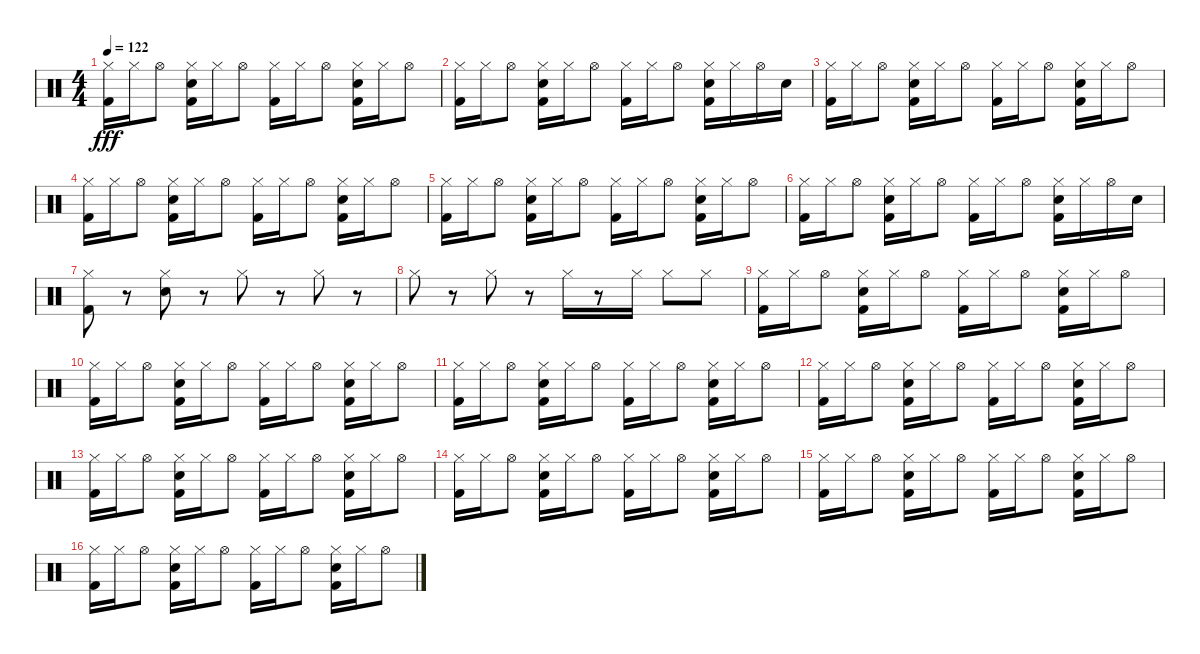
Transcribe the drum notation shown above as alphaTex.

\track "" {mute instrument percussion}
\staff {score}
\articulation defaults
\ts (4 4)
\tempo 122
\clef neutral
\ks c
("Kick (hit) 2" "Hi-Hat (closed)").16{dy fff} "Hi-Hat (closed)".16 "Hi-Hat (open)".8 ("Kick (hit) 2" "Snare (hit) 2" "Hi-Hat (closed)").16 "Hi-Hat (closed)".16 "Hi-Hat (open)".8 ("Kick (hit) 2" "Hi-Hat (closed)").16 "Hi-Hat (closed)".16 "Hi-Hat (open)".8 ("Kick (hit) 2" "Snare (hit) 2" "Hi-Hat (closed)").16 "Hi-Hat (closed)".16 "Hi-Hat (open)".8 |
("Kick (hit) 2" "Hi-Hat (closed)").16 "Hi-Hat (closed)".16 "Hi-Hat (open)".8 ("Kick (hit) 2" "Snare (hit) 2" "Hi-Hat (closed)").16 "Hi-Hat (closed)".16 "Hi-Hat (open)".8 ("Kick (hit) 2" "Hi-Hat (closed)").16 "Hi-Hat (closed)".16 "Hi-Hat (open)".8 ("Kick (hit) 2" "Snare (hit) 2" "Hi-Hat (closed)").16 "Hi-Hat (closed)".16 "Hi-Hat (open)".16 "Snare (hit) 2".16 |
("Kick (hit) 2" "Hi-Hat (closed)").16 "Hi-Hat (closed)".16 "Hi-Hat (open)".8 ("Kick (hit) 2" "Snare (hit) 2" "Hi-Hat (closed)").16 "Hi-Hat (closed)".16 "Hi-Hat (open)".8 ("Kick (hit) 2" "Hi-Hat (closed)").16 "Hi-Hat (closed)".16 "Hi-Hat (open)".8 ("Kick (hit) 2" "Snare (hit) 2" "Hi-Hat (closed)").16 "Hi-Hat (closed)".16 "Hi-Hat (open)".8 |
("Kick (hit) 2" "Hi-Hat (closed)").16 "Hi-Hat (closed)".16 "Hi-Hat (open)".8 ("Kick (hit) 2" "Snare (hit) 2" "Hi-Hat (closed)").16 "Hi-Hat (closed)".16 "Hi-Hat (open)".8 ("Kick (hit) 2" "Hi-Hat (closed)").16 "Hi-Hat (closed)".16 "Hi-Hat (open)".8 ("Kick (hit) 2" "Snare (hit) 2" "Hi-Hat (closed)").16 "Hi-Hat (closed)".16 "Hi-Hat (open)".8 |
("Kick (hit) 2" "Hi-Hat (closed)").16 "Hi-Hat (closed)".16 "Hi-Hat (open)".8 ("Kick (hit) 2" "Snare (hit) 2" "Hi-Hat (closed)").16 "Hi-Hat (closed)".16 "Hi-Hat (open)".8 ("Kick (hit) 2" "Hi-Hat (closed)").16 "Hi-Hat (closed)".16 "Hi-Hat (open)".8 ("Kick (hit) 2" "Snare (hit) 2" "Hi-Hat (closed)").16 "Hi-Hat (closed)".16 "Hi-Hat (open)".8 |
("Kick (hit) 2" "Hi-Hat (closed)").16 "Hi-Hat (closed)".16 "Hi-Hat (open)".8 ("Kick (hit) 2" "Snare (hit) 2" "Hi-Hat (closed)").16 "Hi-Hat (closed)".16 "Hi-Hat (open)".8 ("Kick (hit) 2" "Hi-Hat (closed)").16 "Hi-Hat (closed)".16 "Hi-Hat (open)".8 ("Kick (hit) 2" "Snare (hit) 2" "Hi-Hat (closed)").16 "Hi-Hat (closed)".16 "Hi-Hat (open)".16 "Snare (hit) 2".16 |
("Kick (hit) 2" "Hi-Hat (closed)").8 r.8 ("Hand Clap (hit)" "Hi-Hat (closed)").8 r.8 "Hi-Hat (closed)".8 r.8 "Hi-Hat (closed)".8 r.8 |
"Hi-Hat (closed)".8 r.8 "Hi-Hat (closed)".8 r.8 "Hi-Hat (closed)".16 r.8 "Hi-Hat (closed)".16 "Hi-Hat (closed)".8 "Hi-Hat (closed)".8 |
("Kick (hit) 2" "Hi-Hat (closed)").16 "Hi-Hat (closed)".16 "Hi-Hat (open)".8 ("Kick (hit) 2" "Snare (hit) 2" "Hi-Hat (closed)").16 "Hi-Hat (closed)".16 "Hi-Hat (open)".8 ("Kick (hit) 2" "Hi-Hat (closed)").16 "Hi-Hat (closed)".16 "Hi-Hat (open)".8 ("Kick (hit) 2" "Snare (hit) 2" "Hi-Hat (closed)").16 "Hi-Hat (closed)".16 "Hi-Hat (open)".8 |
("Kick (hit) 2" "Hi-Hat (closed)").16 "Hi-Hat (closed)".16 "Hi-Hat (open)".8 ("Kick (hit) 2" "Snare (hit) 2" "Hi-Hat (closed)").16 "Hi-Hat (closed)".16 "Hi-Hat (open)".8 ("Kick (hit) 2" "Hi-Hat (closed)").16 "Hi-Hat (closed)".16 "Hi-Hat (open)".8 ("Kick (hit) 2" "Snare (hit) 2" "Hi-Hat (closed)").16 "Hi-Hat (closed)".16 "Hi-Hat (open)".8 |
("Kick (hit) 2" "Hi-Hat (closed)").16 "Hi-Hat (closed)".16 "Hi-Hat (open)".8 ("Kick (hit) 2" "Snare (hit) 2" "Hi-Hat (closed)").16 "Hi-Hat (closed)".16 "Hi-Hat (open)".8 ("Kick (hit) 2" "Hi-Hat (closed)").16 "Hi-Hat (closed)".16 "Hi-Hat (open)".8 ("Kick (hit) 2" "Snare (hit) 2" "Hi-Hat (closed)").16 "Hi-Hat (closed)".16 "Hi-Hat (open)".8 |
("Kick (hit) 2" "Hi-Hat (closed)").16 "Hi-Hat (closed)".16 "Hi-Hat (open)".8 ("Kick (hit) 2" "Snare (hit) 2" "Hi-Hat (closed)").16 "Hi-Hat (closed)".16 "Hi-Hat (open)".8 ("Kick (hit) 2" "Hi-Hat (closed)").16 "Hi-Hat (closed)".16 "Hi-Hat (open)".8 ("Kick (hit) 2" "Snare (hit) 2" "Hi-Hat (closed)").16 "Hi-Hat (closed)".16 "Hi-Hat (open)".8 |
("Kick (hit) 2" "Hi-Hat (closed)").16 "Hi-Hat (closed)".16 "Hi-Hat (open)".8 ("Kick (hit) 2" "Snare (hit) 2" "Hi-Hat (closed)").16 "Hi-Hat (closed)".16 "Hi-Hat (open)".8 ("Kick (hit) 2" "Hi-Hat (closed)").16 "Hi-Hat (closed)".16 "Hi-Hat (open)".8 ("Kick (hit) 2" "Snare (hit) 2" "Hi-Hat (closed)").16 "Hi-Hat (closed)".16 "Hi-Hat (open)".8 |
("Kick (hit) 2" "Hi-Hat (closed)").16 "Hi-Hat (closed)".16 "Hi-Hat (open)".8 ("Kick (hit) 2" "Snare (hit) 2" "Hi-Hat (closed)").16 "Hi-Hat (closed)".16 "Hi-Hat (open)".8 ("Kick (hit) 2" "Hi-Hat (closed)").16 "Hi-Hat (closed)".16 "Hi-Hat (open)".8 ("Kick (hit) 2" "Snare (hit) 2" "Hi-Hat (closed)").16 "Hi-Hat (closed)".16 "Hi-Hat (open)".8 |
("Kick (hit) 2" "Hi-Hat (closed)").16 "Hi-Hat (closed)".16 "Hi-Hat (open)".8 ("Kick (hit) 2" "Snare (hit) 2" "Hi-Hat (closed)").16 "Hi-Hat (closed)".16 "Hi-Hat (open)".8 ("Kick (hit) 2" "Hi-Hat (closed)").16 "Hi-Hat (closed)".16 "Hi-Hat (open)".8 ("Kick (hit) 2" "Snare (hit) 2" "Hi-Hat (closed)").16 "Hi-Hat (closed)".16 "Hi-Hat (open)".8 |
("Kick (hit) 2" "Hi-Hat (closed)").16 "Hi-Hat (closed)".16 "Hi-Hat (open)".8 ("Kick (hit) 2" "Snare (hit) 2" "Hi-Hat (closed)").16 "Hi-Hat (closed)".16 "Hi-Hat (open)".8 ("Kick (hit) 2" "Hi-Hat (closed)").16 "Hi-Hat (closed)".16 "Hi-Hat (open)".8 ("Kick (hit) 2" "Snare (hit) 2" "Hi-Hat (closed)").16 "Hi-Hat (closed)".16 "Hi-Hat (open)".8
